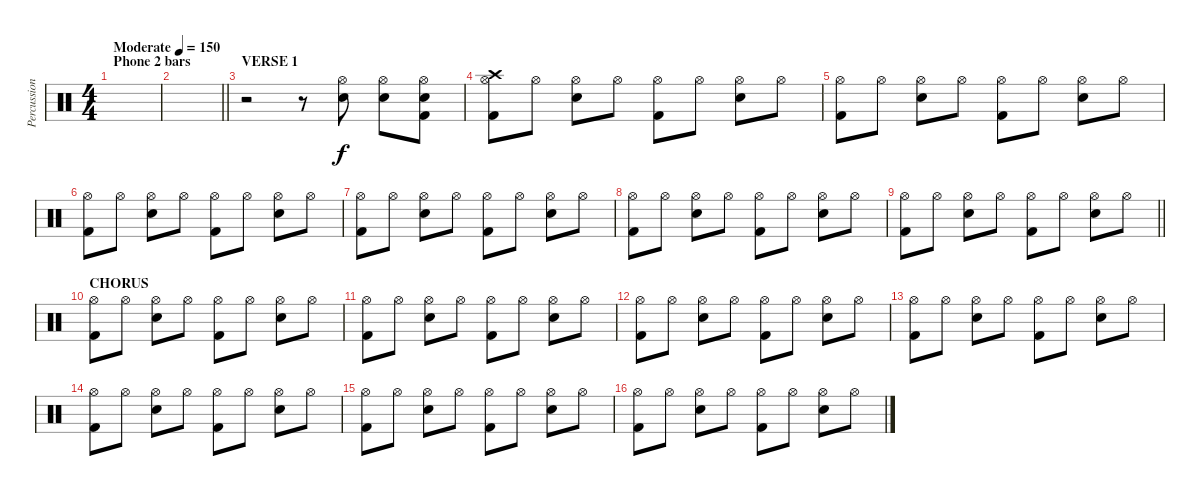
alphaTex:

\track ("Percussion" "Percussion") {solo instrument percussion}
\staff {score}
\articulation defaults
\ts (4 4)
\section ("" "Phone 2 bars")
\tempo (150 "Moderate")
\clef neutral
\ks c
|
\barLineRight lightlight
|
\section ("" "VERSE 1")
r.2 r.8 ("Hi-Hat (open)" "Snare (hit) 2").8 ("Hi-Hat (open)" "Snare (hit) 2").8 ("Hi-Hat (open)" "Kick (hit) 2" "Snare (hit) 2").8 |
("Hi-Hat (open)" "Crash high (hit)" "Kick (hit) 2").8 "Hi-Hat (open)".8 ("Hi-Hat (open)" "Snare (hit) 2").8 "Hi-Hat (open)".8 ("Hi-Hat (open)" "Kick (hit) 2").8 "Hi-Hat (open)".8 ("Hi-Hat (open)" "Snare (hit) 2").8 "Hi-Hat (open)".8 |
("Hi-Hat (open)" "Kick (hit) 2").8 "Hi-Hat (open)".8 ("Hi-Hat (open)" "Snare (hit) 2").8 "Hi-Hat (open)".8 ("Hi-Hat (open)" "Kick (hit) 2").8 "Hi-Hat (open)".8 ("Hi-Hat (open)" "Snare (hit) 2").8 "Hi-Hat (open)".8 |
("Hi-Hat (open)" "Kick (hit) 2").8 "Hi-Hat (open)".8 ("Hi-Hat (open)" "Snare (hit) 2").8 "Hi-Hat (open)".8 ("Hi-Hat (open)" "Kick (hit) 2").8 "Hi-Hat (open)".8 ("Hi-Hat (open)" "Snare (hit) 2").8 "Hi-Hat (open)".8 |
("Hi-Hat (open)" "Kick (hit) 2").8 "Hi-Hat (open)".8 ("Hi-Hat (open)" "Snare (hit) 2").8 "Hi-Hat (open)".8 ("Hi-Hat (open)" "Kick (hit) 2").8 "Hi-Hat (open)".8 ("Hi-Hat (open)" "Snare (hit) 2").8 "Hi-Hat (open)".8 |
("Hi-Hat (open)" "Kick (hit) 2").8 "Hi-Hat (open)".8 ("Hi-Hat (open)" "Snare (hit) 2").8 "Hi-Hat (open)".8 ("Hi-Hat (open)" "Kick (hit) 2").8 "Hi-Hat (open)".8 ("Hi-Hat (open)" "Snare (hit) 2").8 "Hi-Hat (open)".8 |
\barLineRight lightlight
("Hi-Hat (open)" "Kick (hit) 2").8 "Hi-Hat (open)".8 ("Hi-Hat (open)" "Snare (hit) 2").8 "Hi-Hat (open)".8 ("Hi-Hat (open)" "Kick (hit) 2").8 "Hi-Hat (open)".8 ("Hi-Hat (open)" "Snare (hit) 2").8 "Hi-Hat (open)".8 |
\section ("" "CHORUS")
("Hi-Hat (open)" "Kick (hit) 2").8 "Hi-Hat (open)".8 ("Hi-Hat (open)" "Snare (hit) 2").8 "Hi-Hat (open)".8 ("Hi-Hat (open)" "Kick (hit) 2").8 "Hi-Hat (open)".8 ("Hi-Hat (open)" "Snare (hit) 2").8 "Hi-Hat (open)".8 |
("Hi-Hat (open)" "Kick (hit) 2").8 "Hi-Hat (open)".8 ("Hi-Hat (open)" "Snare (hit) 2").8 "Hi-Hat (open)".8 ("Hi-Hat (open)" "Kick (hit) 2").8 "Hi-Hat (open)".8 ("Hi-Hat (open)" "Snare (hit) 2").8 "Hi-Hat (open)".8 |
("Hi-Hat (open)" "Kick (hit) 2").8 "Hi-Hat (open)".8 ("Hi-Hat (open)" "Snare (hit) 2").8 "Hi-Hat (open)".8 ("Hi-Hat (open)" "Kick (hit) 2").8 "Hi-Hat (open)".8 ("Hi-Hat (open)" "Snare (hit) 2").8 "Hi-Hat (open)".8 |
("Hi-Hat (open)" "Kick (hit) 2").8 "Hi-Hat (open)".8 ("Hi-Hat (open)" "Snare (hit) 2").8 "Hi-Hat (open)".8 ("Hi-Hat (open)" "Kick (hit) 2").8 "Hi-Hat (open)".8 ("Hi-Hat (open)" "Snare (hit) 2").8 "Hi-Hat (open)".8 |
("Hi-Hat (open)" "Kick (hit) 2").8 "Hi-Hat (open)".8 ("Hi-Hat (open)" "Snare (hit) 2").8 "Hi-Hat (open)".8 ("Hi-Hat (open)" "Kick (hit) 2").8 "Hi-Hat (open)".8 ("Hi-Hat (open)" "Snare (hit) 2").8 "Hi-Hat (open)".8 |
("Hi-Hat (open)" "Kick (hit) 2").8 "Hi-Hat (open)".8 ("Hi-Hat (open)" "Snare (hit) 2").8 "Hi-Hat (open)".8 ("Hi-Hat (open)" "Kick (hit) 2").8 "Hi-Hat (open)".8 ("Hi-Hat (open)" "Snare (hit) 2").8 "Hi-Hat (open)".8 |
("Hi-Hat (open)" "Kick (hit) 2").8 "Hi-Hat (open)".8 ("Hi-Hat (open)" "Snare (hit) 2").8 "Hi-Hat (open)".8 ("Hi-Hat (open)" "Kick (hit) 2").8 "Hi-Hat (open)".8 ("Hi-Hat (open)" "Snare (hit) 2").8 "Hi-Hat (open)".8
